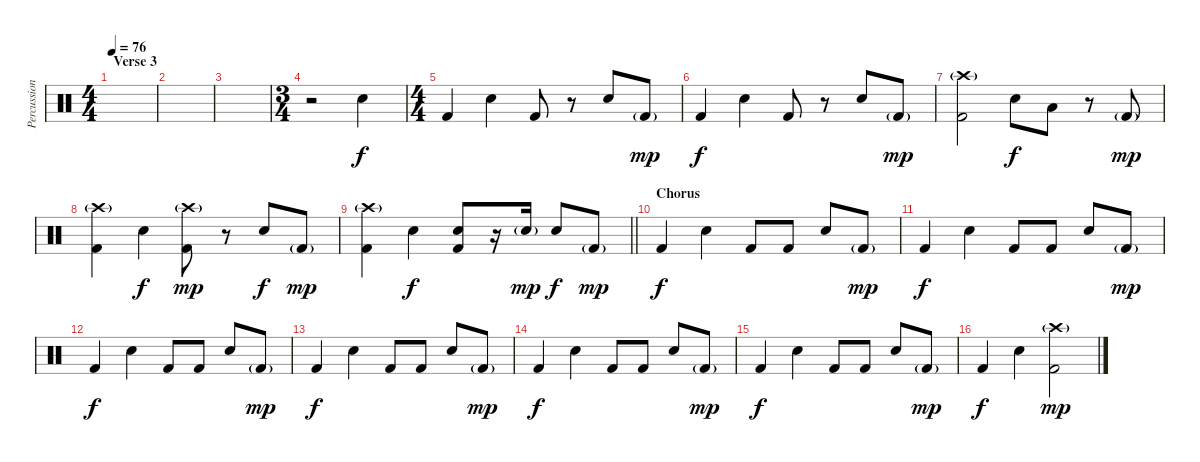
\track ("Percussion" "Percussion") {instrument percussion}
\staff {score}
\articulation defaults
\ts (4 4)
\section ("" "Verse 3")
\tempo 76
\clef neutral
\ks c
|
|
|
\ts (3 4)
r.2 "Snare (hit) 2".4{dy f} |
\ts (4 4)
"Kick (hit) 2".4 "Snare (hit) 2".4 "Kick (hit) 2".8 r.8 "Snare (hit) 2".8 "Kick (hit) 2"{g}.8{dy mp} |
"Kick (hit) 2".4{dy f} "Snare (hit) 2".4 "Kick (hit) 2".8 r.8 "Snare (hit) 2".8 "Kick (hit) 2"{g}.8{dy mp} |
("Crash high (hit)"{g} "Kick (hit) 2").2 "Snare (hit) 2".8{dy f} "Low Floor Tom (hit)".8 r.8 "Kick (hit) 2"{g}.8{dy mp} |
("Crash high (hit)"{g} "Kick (hit) 2").4 "Snare (hit) 2".4{dy f} ("Crash high (hit)"{g} "Kick (hit) 2").8{dy mp} r.8 "Snare (hit) 2".8{dy f} "Kick (hit) 2"{g}.8{dy mp} |
\barLineRight lightlight
("Crash high (hit)"{g} "Kick (hit) 2").4 "Snare (hit) 2".4{dy f} ("Snare (hit) 2" "Kick (hit) 2").8 r.16 "Snare (hit) 2"{g}.16{dy mp} "Snare (hit) 2".8{dy f} "Kick (hit) 2"{g}.8{dy mp} |
\section ("" "Chorus")
"Kick (hit) 2".4{dy f} "Snare (hit) 2".4 "Kick (hit) 2".8 "Kick (hit) 2".8 "Snare (hit) 2".8 "Kick (hit) 2"{g}.8{dy mp} |
"Kick (hit) 2".4{dy f} "Snare (hit) 2".4 "Kick (hit) 2".8 "Kick (hit) 2".8 "Snare (hit) 2".8 "Kick (hit) 2"{g}.8{dy mp} |
"Kick (hit) 2".4{dy f} "Snare (hit) 2".4 "Kick (hit) 2".8 "Kick (hit) 2".8 "Snare (hit) 2".8 "Kick (hit) 2"{g}.8{dy mp} |
"Kick (hit) 2".4{dy f} "Snare (hit) 2".4 "Kick (hit) 2".8 "Kick (hit) 2".8 "Snare (hit) 2".8 "Kick (hit) 2"{g}.8{dy mp} |
"Kick (hit) 2".4{dy f} "Snare (hit) 2".4 "Kick (hit) 2".8 "Kick (hit) 2".8 "Snare (hit) 2".8 "Kick (hit) 2"{g}.8{dy mp} |
"Kick (hit) 2".4{dy f} "Snare (hit) 2".4 "Kick (hit) 2".8 "Kick (hit) 2".8 "Snare (hit) 2".8 "Kick (hit) 2"{g}.8{dy mp} |
"Kick (hit) 2".4{dy f} "Snare (hit) 2".4 ("Crash high (hit)"{g} "Kick (hit) 2").2{dy mp}
